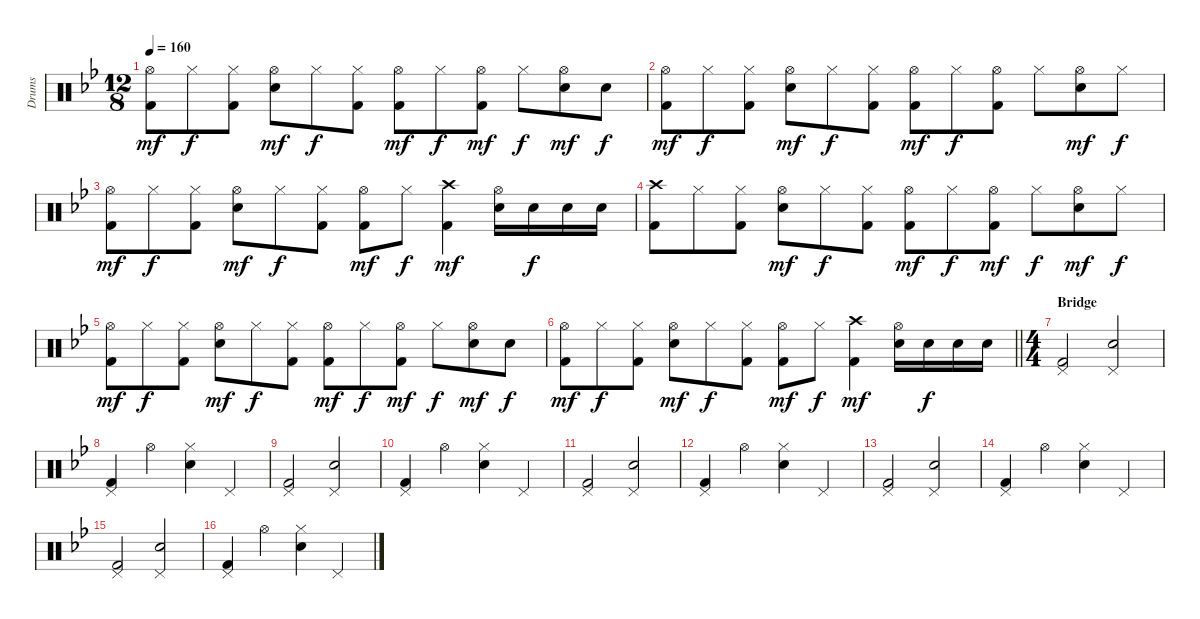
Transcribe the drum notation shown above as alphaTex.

\track ("Drums" "Drums") {instrument percussion}
\staff {score}
\articulation defaults
\ts (12 8)
\tempo 160
\clef neutral
\ks bb
("Hi-Hat (open)" "Kick (hit) 2").8{dy mf} "Hi-Hat (closed)".8{dy f} ("Hi-Hat (closed)" "Kick (hit) 2").8 ("Hi-Hat (open)" "Electric Snare (hit)").8{dy mf} "Hi-Hat (closed)".8{dy f} ("Hi-Hat (closed)" "Kick (hit) 2").8 ("Hi-Hat (open)" "Kick (hit) 2").8{dy mf} "Hi-Hat (closed)".8{dy f} ("Hi-Hat (open)" "Kick (hit) 2").8{dy mf} "Hi-Hat (closed)".8{dy f} ("Hi-Hat (open)" "Electric Snare (hit)").8{dy mf} "Electric Snare (hit)".8{dy f} |
("Hi-Hat (open)" "Kick (hit) 2").8{dy mf} "Hi-Hat (closed)".8{dy f} ("Hi-Hat (closed)" "Kick (hit) 2").8 ("Hi-Hat (open)" "Electric Snare (hit)").8{dy mf} "Hi-Hat (closed)".8{dy f} ("Hi-Hat (closed)" "Kick (hit) 2").8 ("Hi-Hat (open)" "Kick (hit) 2").8{dy mf} "Hi-Hat (closed)".8{dy f} ("Hi-Hat (open)" "Kick (hit) 2").8 "Hi-Hat (closed)".8 ("Hi-Hat (open)" "Electric Snare (hit)").8{dy mf} "Hi-Hat (closed)".8{dy f} |
("Hi-Hat (open)" "Kick (hit) 2").8{dy mf} "Hi-Hat (closed)".8{dy f} ("Hi-Hat (closed)" "Kick (hit) 2").8 ("Hi-Hat (open)" "Electric Snare (hit)").8{dy mf} "Hi-Hat (closed)".8{dy f} ("Hi-Hat (closed)" "Kick (hit) 2").8 ("Hi-Hat (open)" "Kick (hit) 2").8{dy mf} "Hi-Hat (closed)".8{dy f} ("Crash high (hit)" "Kick (hit) 2").4{dy mf} ("Hi-Hat (open)" "Electric Snare (hit)").16 "Electric Snare (hit)".16{dy f} "Electric Snare (hit)".16 "Electric Snare (hit)".16 |
("Crash high (hit)" "Kick (hit) 2").8 "Hi-Hat (closed)".8 ("Hi-Hat (closed)" "Kick (hit) 2").8 ("Hi-Hat (open)" "Electric Snare (hit)").8{dy mf} "Hi-Hat (closed)".8{dy f} ("Hi-Hat (closed)" "Kick (hit) 2").8 ("Hi-Hat (open)" "Kick (hit) 2").8{dy mf} "Hi-Hat (closed)".8{dy f} ("Hi-Hat (open)" "Kick (hit) 2").8{dy mf} "Hi-Hat (closed)".8{dy f} ("Hi-Hat (open)" "Electric Snare (hit)").8{dy mf} "Hi-Hat (closed)".8{dy f} |
("Hi-Hat (open)" "Kick (hit) 2").8{dy mf} "Hi-Hat (closed)".8{dy f} ("Hi-Hat (closed)" "Kick (hit) 2").8 ("Hi-Hat (open)" "Electric Snare (hit)").8{dy mf} "Hi-Hat (closed)".8{dy f} ("Hi-Hat (closed)" "Kick (hit) 2").8 ("Hi-Hat (open)" "Kick (hit) 2").8{dy mf} "Hi-Hat (closed)".8{dy f} ("Hi-Hat (open)" "Kick (hit) 2").8{dy mf} "Hi-Hat (closed)".8{dy f} ("Hi-Hat (open)" "Electric Snare (hit)").8{dy mf} "Electric Snare (hit)".8{dy f} |
\barLineRight lightlight
("Hi-Hat (open)" "Kick (hit) 2").8{dy mf} "Hi-Hat (closed)".8{dy f} ("Hi-Hat (closed)" "Kick (hit) 2").8 ("Hi-Hat (open)" "Electric Snare (hit)").8{dy mf} "Hi-Hat (closed)".8{dy f} ("Hi-Hat (closed)" "Kick (hit) 2").8 ("Hi-Hat (open)" "Kick (hit) 2").8{dy mf} "Hi-Hat (closed)".8{dy f} ("Crash high (hit)" "Kick (hit) 2").4{dy mf} ("Hi-Hat (open)" "Electric Snare (hit)").16 "Electric Snare (hit)".16{dy f} "Electric Snare (hit)".16 "Electric Snare (hit)".16 |
\ts (4 4)
\section ("" "Bridge")
("Pedal Hi-Hat (hit)" "Kick (hit) 2").2 ("Pedal Hi-Hat (hit)" "Electric Snare (hit)").2 |
("Pedal Hi-Hat (hit)" "Kick (hit) 2").4 "Hi-Hat (open)".4 ("Hi-Hat (closed)" "Electric Snare (hit)").4 "Pedal Hi-Hat (hit)".4 |
("Pedal Hi-Hat (hit)" "Kick (hit) 2").2 ("Pedal Hi-Hat (hit)" "Electric Snare (hit)").2 |
("Pedal Hi-Hat (hit)" "Kick (hit) 2").4 "Hi-Hat (open)".4 ("Hi-Hat (closed)" "Electric Snare (hit)").4 "Pedal Hi-Hat (hit)".4 |
("Pedal Hi-Hat (hit)" "Kick (hit) 2").2{volume 8} ("Pedal Hi-Hat (hit)" "Electric Snare (hit)").2 |
("Pedal Hi-Hat (hit)" "Kick (hit) 2").4 "Hi-Hat (open)".4 ("Hi-Hat (closed)" "Electric Snare (hit)").4 "Pedal Hi-Hat (hit)".4 |
("Pedal Hi-Hat (hit)" "Kick (hit) 2").2 ("Pedal Hi-Hat (hit)" "Electric Snare (hit)").2 |
("Pedal Hi-Hat (hit)" "Kick (hit) 2").4 "Hi-Hat (open)".4 ("Hi-Hat (closed)" "Electric Snare (hit)").4 "Pedal Hi-Hat (hit)".4 |
("Pedal Hi-Hat (hit)" "Kick (hit) 2").2{volume 0} ("Pedal Hi-Hat (hit)" "Electric Snare (hit)").2 |
("Pedal Hi-Hat (hit)" "Kick (hit) 2").4 "Hi-Hat (open)".4 ("Hi-Hat (closed)" "Electric Snare (hit)").4 "Pedal Hi-Hat (hit)".4
